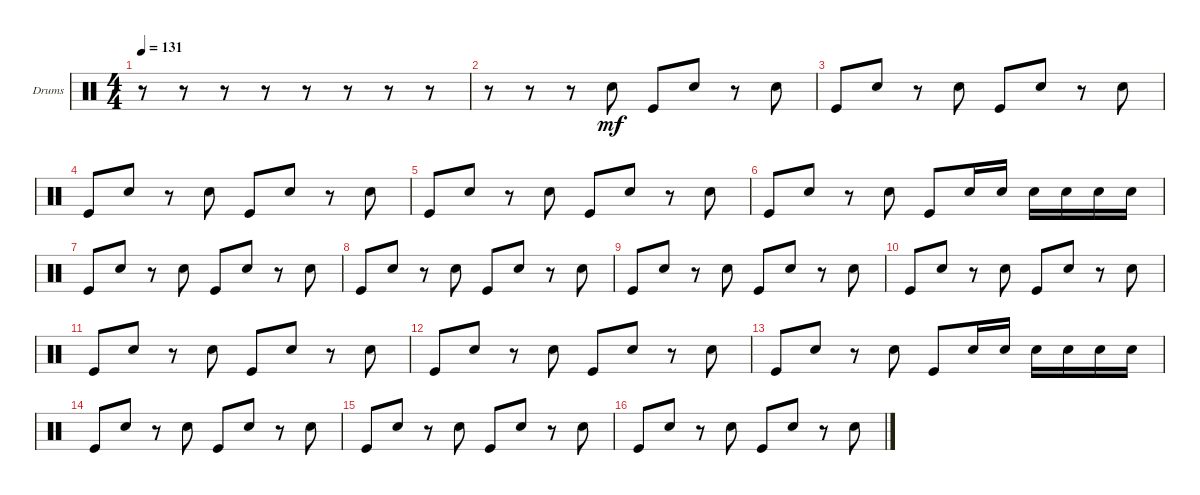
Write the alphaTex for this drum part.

\bracketExtendMode groupsimilarinstruments
\firstSystemTrackNameOrientation horizontal
\otherSystemsTrackNameOrientation horizontal
\track ("Drumkit" "Drums") {instrument percussion}
\staff {score}
\articulation defaults
\ts (4 4)
\tempo 131
\clef neutral
\scale
0.472222
\ks c
r.8{dy mf} r.8 r.8 r.8 r.8 r.8 r.8 r.8 |
\scale
0.263889 r.8 r.8 r.8 "Snare (hit) 2".8 "Kick (hit)".8 "Snare (hit) 2".8 r.8 "Snare (hit) 2".8 |
\scale
0.263889 "Kick (hit)".8 "Snare (hit) 2".8 r.8 "Snare (hit) 2".8 "Kick (hit)".8 "Snare (hit) 2".8 r.8 "Snare (hit) 2".8 |
\scale
0.333333 "Kick (hit)".8 "Snare (hit) 2".8 r.8 "Snare (hit) 2".8 "Kick (hit)".8 "Snare (hit) 2".8 r.8 "Snare (hit) 2".8 |
\scale
0.333333 "Kick (hit)".8 "Snare (hit) 2".8 r.8 "Snare (hit) 2".8 "Kick (hit)".8 "Snare (hit) 2".8 r.8 "Snare (hit) 2".8 |
\scale
0.333333 "Kick (hit)".8 "Snare (hit) 2".8 r.8 "Snare (hit) 2".8 "Kick (hit)".8 "Snare (hit) 2".16 "Snare (hit) 2".16 "Snare (hit) 2".16 "Snare (hit) 2".16 "Snare (hit) 2".16 "Snare (hit) 2".16 |
\scale
0.333333 "Kick (hit)".8 "Snare (hit) 2".8 r.8 "Snare (hit) 2".8 "Kick (hit)".8 "Snare (hit) 2".8 r.8 "Snare (hit) 2".8 |
\scale
0.333333 "Kick (hit)".8 "Snare (hit) 2".8 r.8 "Snare (hit) 2".8 "Kick (hit)".8 "Snare (hit) 2".8 r.8 "Snare (hit) 2".8 |
\scale
0.333333 "Kick (hit)".8 "Snare (hit) 2".8 r.8 "Snare (hit) 2".8 "Kick (hit)".8 "Snare (hit) 2".8 r.8 "Snare (hit) 2".8 |
\scale
0.333333 "Kick (hit)".8 "Snare (hit) 2".8 r.8 "Snare (hit) 2".8 "Kick (hit)".8 "Snare (hit) 2".8 r.8 "Snare (hit) 2".8 |
\scale
0.333333 "Kick (hit)".8 "Snare (hit) 2".8 r.8 "Snare (hit) 2".8 "Kick (hit)".8 "Snare (hit) 2".8 r.8 "Snare (hit) 2".8 |
\scale
0.333333 "Kick (hit)".8 "Snare (hit) 2".8 r.8 "Snare (hit) 2".8 "Kick (hit)".8 "Snare (hit) 2".8 r.8 "Snare (hit) 2".8 |
\scale
0.333333 "Kick (hit)".8 "Snare (hit) 2".8 r.8 "Snare (hit) 2".8 "Kick (hit)".8 "Snare (hit) 2".16 "Snare (hit) 2".16 "Snare (hit) 2".16 "Snare (hit) 2".16 "Snare (hit) 2".16 "Snare (hit) 2".16 |
\scale
0.333333 "Kick (hit)".8 "Snare (hit) 2".8 r.8 "Snare (hit) 2".8 "Kick (hit)".8 "Snare (hit) 2".8 r.8 "Snare (hit) 2".8 |
\scale
0.333333 "Kick (hit)".8 "Snare (hit) 2".8 r.8 "Snare (hit) 2".8 "Kick (hit)".8 "Snare (hit) 2".8 r.8 "Snare (hit) 2".8 |
\scale
0.333333 "Kick (hit)".8 "Snare (hit) 2".8 r.8 "Snare (hit) 2".8 "Kick (hit)".8 "Snare (hit) 2".8 r.8 "Snare (hit) 2".8
